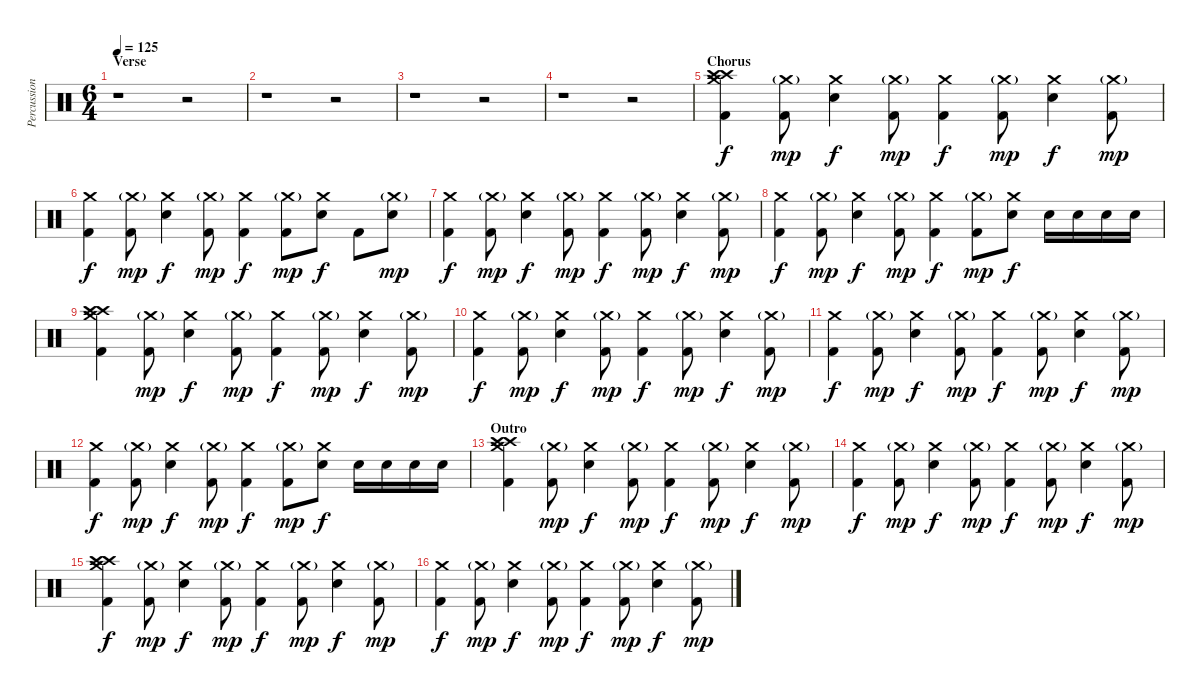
\track ("Percussion" "Percussion") {instrument percussion}
\staff {score}
\articulation defaults
\ts (6 4)
\section ("" "Verse")
\tempo 125
\clef neutral
\ks c
r.1{dy f} r.2 |
r.1 r.2 |
r.1 r.2 |
r.1 r.2 |
\section ("" "Chorus")
("Crash high (hit)" "Crash high (hit)" "Crash medium (hit)" "Kick (hit) 2").4 ("Crash medium (hit)"{g} "Kick (hit) 2").8{dy mp} ("Crash medium (hit)" "Electric Snare (hit)").4{dy f} ("Crash medium (hit)"{g} "Kick (hit) 2").8{dy mp} ("Crash medium (hit)" "Kick (hit) 2").4{dy f} ("Crash medium (hit)"{g} "Kick (hit) 2").8{dy mp} ("Crash medium (hit)" "Electric Snare (hit)").4{dy f} ("Crash medium (hit)"{g} "Kick (hit) 2").8{dy mp} |
("Crash medium (hit)" "Kick (hit) 2").4{dy f} ("Crash medium (hit)"{g} "Kick (hit) 2").8{dy mp} ("Crash medium (hit)" "Electric Snare (hit)").4{dy f} ("Crash medium (hit)"{g} "Kick (hit) 2").8{dy mp} ("Crash medium (hit)" "Kick (hit) 2").4{dy f} ("Crash medium (hit)"{g} "Kick (hit) 2").8{dy mp} ("Crash medium (hit)" "Electric Snare (hit)").8{dy f} "Kick (hit) 2".8 ("Crash medium (hit)"{g} "Electric Snare (hit)").8{dy mp} |
("Crash medium (hit)" "Kick (hit) 2").4{dy f} ("Crash medium (hit)"{g} "Kick (hit) 2").8{dy mp} ("Crash medium (hit)" "Electric Snare (hit)").4{dy f} ("Crash medium (hit)"{g} "Kick (hit) 2").8{dy mp} ("Crash medium (hit)" "Kick (hit) 2").4{dy f} ("Crash medium (hit)"{g} "Kick (hit) 2").8{dy mp} ("Crash medium (hit)" "Electric Snare (hit)").4{dy f} ("Crash medium (hit)"{g} "Kick (hit) 2").8{dy mp} |
("Crash medium (hit)" "Kick (hit) 2").4{dy f} ("Crash medium (hit)"{g} "Kick (hit) 2").8{dy mp} ("Crash medium (hit)" "Electric Snare (hit)").4{dy f} ("Crash medium (hit)"{g} "Kick (hit) 2").8{dy mp} ("Crash medium (hit)" "Kick (hit) 2").4{dy f} ("Crash medium (hit)"{g} "Kick (hit) 2").8{dy mp} ("Crash medium (hit)" "Electric Snare (hit)").8{dy f} "Electric Snare (hit)".16 "Electric Snare (hit)".16 "Electric Snare (hit)".16 "Electric Snare (hit)".16 |
("Crash high (hit)" "Crash high (hit)" "Crash medium (hit)" "Kick (hit) 2").4 ("Crash medium (hit)"{g} "Kick (hit) 2").8{dy mp} ("Crash medium (hit)" "Electric Snare (hit)").4{dy f} ("Crash medium (hit)"{g} "Kick (hit) 2").8{dy mp} ("Crash medium (hit)" "Kick (hit) 2").4{dy f} ("Crash medium (hit)"{g} "Kick (hit) 2").8{dy mp} ("Crash medium (hit)" "Electric Snare (hit)").4{dy f} ("Crash medium (hit)"{g} "Kick (hit) 2").8{dy mp} |
("Crash medium (hit)" "Kick (hit) 2").4{dy f} ("Crash medium (hit)"{g} "Kick (hit) 2").8{dy mp} ("Crash medium (hit)" "Electric Snare (hit)").4{dy f} ("Crash medium (hit)"{g} "Kick (hit) 2").8{dy mp} ("Crash medium (hit)" "Kick (hit) 2").4{dy f} ("Crash medium (hit)"{g} "Kick (hit) 2").8{dy mp} ("Crash medium (hit)" "Electric Snare (hit)").4{dy f} ("Crash medium (hit)"{g} "Kick (hit) 2").8{dy mp} |
("Crash medium (hit)" "Kick (hit) 2").4{dy f} ("Crash medium (hit)"{g} "Kick (hit) 2").8{dy mp} ("Crash medium (hit)" "Electric Snare (hit)").4{dy f} ("Crash medium (hit)"{g} "Kick (hit) 2").8{dy mp} ("Crash medium (hit)" "Kick (hit) 2").4{dy f} ("Crash medium (hit)"{g} "Kick (hit) 2").8{dy mp} ("Crash medium (hit)" "Electric Snare (hit)").4{dy f} ("Crash medium (hit)"{g} "Kick (hit) 2").8{dy mp} |
("Crash medium (hit)" "Kick (hit) 2").4{dy f} ("Crash medium (hit)"{g} "Kick (hit) 2").8{dy mp} ("Crash medium (hit)" "Electric Snare (hit)").4{dy f} ("Crash medium (hit)"{g} "Kick (hit) 2").8{dy mp} ("Crash medium (hit)" "Kick (hit) 2").4{dy f} ("Crash medium (hit)"{g} "Kick (hit) 2").8{dy mp} ("Crash medium (hit)" "Electric Snare (hit)").8{dy f} "Electric Snare (hit)".16 "Electric Snare (hit)".16 "Electric Snare (hit)".16 "Electric Snare (hit)".16 |
\section ("" "Outro")
("Crash high (hit)" "Crash high (hit)" "Crash medium (hit)" "Kick (hit) 2").4 ("Crash medium (hit)"{g} "Kick (hit) 2").8{dy mp} ("Crash medium (hit)" "Electric Snare (hit)").4{dy f} ("Crash medium (hit)"{g} "Kick (hit) 2").8{dy mp} ("Crash medium (hit)" "Kick (hit) 2").4{dy f} ("Crash medium (hit)"{g} "Kick (hit) 2").8{dy mp} ("Crash medium (hit)" "Electric Snare (hit)").4{dy f} ("Crash medium (hit)"{g} "Kick (hit) 2").8{dy mp} |
("Crash medium (hit)" "Kick (hit) 2").4{dy f} ("Crash medium (hit)"{g} "Kick (hit) 2").8{dy mp} ("Crash medium (hit)" "Electric Snare (hit)").4{dy f} ("Crash medium (hit)"{g} "Kick (hit) 2").8{dy mp} ("Crash medium (hit)" "Kick (hit) 2").4{dy f} ("Crash medium (hit)"{g} "Kick (hit) 2").8{dy mp} ("Crash medium (hit)" "Electric Snare (hit)").4{dy f} ("Crash medium (hit)"{g} "Kick (hit) 2").8{dy mp} |
("Crash high (hit)" "Crash high (hit)" "Crash medium (hit)" "Kick (hit) 2").4{dy f} ("Crash medium (hit)"{g} "Kick (hit) 2").8{dy mp} ("Crash medium (hit)" "Electric Snare (hit)").4{dy f} ("Crash medium (hit)"{g} "Kick (hit) 2").8{dy mp} ("Crash medium (hit)" "Kick (hit) 2").4{dy f} ("Crash medium (hit)"{g} "Kick (hit) 2").8{dy mp} ("Crash medium (hit)" "Electric Snare (hit)").4{dy f} ("Crash medium (hit)"{g} "Kick (hit) 2").8{dy mp} |
("Crash medium (hit)" "Kick (hit) 2").4{dy f} ("Crash medium (hit)"{g} "Kick (hit) 2").8{dy mp} ("Crash medium (hit)" "Electric Snare (hit)").4{dy f} ("Crash medium (hit)"{g} "Kick (hit) 2").8{dy mp} ("Crash medium (hit)" "Kick (hit) 2").4{dy f} ("Crash medium (hit)"{g} "Kick (hit) 2").8{dy mp} ("Crash medium (hit)" "Electric Snare (hit)").4{dy f} ("Crash medium (hit)"{g} "Kick (hit) 2").8{dy mp}
